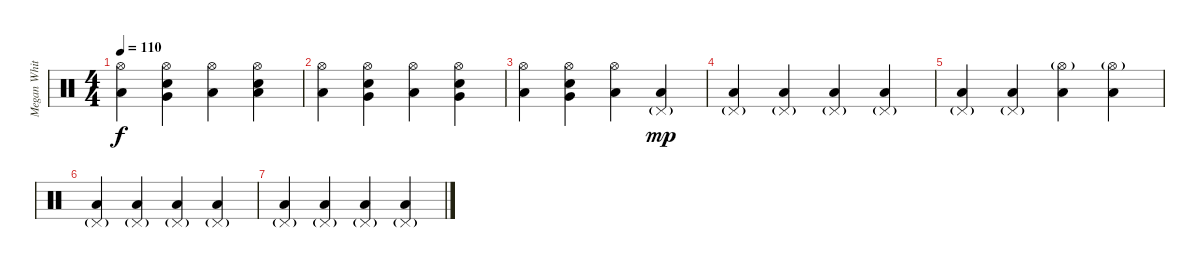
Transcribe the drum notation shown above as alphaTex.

\track ("Megan White (drums)" "Megan Whit") {instrument percussion}
\staff {score}
\articulation defaults
\ts (4 4)
\tempo 110
\clef neutral
\ks c
("Hi-Hat (open)" "Low Floor Tom (hit)").4{dy f} ("Hi-Hat (open)" "Electric Snare (hit)" "Very Low Tom (hit)").4 ("Hi-Hat (open)" "Low Floor Tom (hit)").4 ("Hi-Hat (open)" "Electric Snare (hit)" "Low Floor Tom (hit)").4 |
("Hi-Hat (open)" "Low Floor Tom (hit)").4 ("Hi-Hat (open)" "Electric Snare (hit)" "Very Low Tom (hit)").4 ("Hi-Hat (open)" "Low Floor Tom (hit)").4 ("Hi-Hat (open)" "Electric Snare (hit)" "Very Low Tom (hit)").4 |
("Hi-Hat (open)" "Low Floor Tom (hit)").4 ("Hi-Hat (open)" "Electric Snare (hit)" "Very Low Tom (hit)").4 ("Hi-Hat (open)" "Low Floor Tom (hit)").4 ("Pedal Hi-Hat (hit)"{g} "Low Floor Tom (hit)").4{dy mp} |
("Pedal Hi-Hat (hit)"{g} "Low Floor Tom (hit)").4 ("Pedal Hi-Hat (hit)"{g} "Low Floor Tom (hit)").4 ("Pedal Hi-Hat (hit)"{g} "Low Floor Tom (hit)").4 ("Pedal Hi-Hat (hit)"{g} "Low Floor Tom (hit)").4 |
("Pedal Hi-Hat (hit)"{g} "Low Floor Tom (hit)").4 ("Pedal Hi-Hat (hit)"{g} "Low Floor Tom (hit)").4 ("Hi-Hat (open)"{g} "Low Floor Tom (hit)").4 ("Hi-Hat (open)"{g} "Low Floor Tom (hit)").4 |
("Pedal Hi-Hat (hit)"{g} "Low Floor Tom (hit)").4 ("Pedal Hi-Hat (hit)"{g} "Low Floor Tom (hit)").4 ("Pedal Hi-Hat (hit)"{g} "Low Floor Tom (hit)").4 ("Pedal Hi-Hat (hit)"{g} "Low Floor Tom (hit)").4 |
("Pedal Hi-Hat (hit)"{g} "Low Floor Tom (hit)").4 ("Pedal Hi-Hat (hit)"{g} "Low Floor Tom (hit)").4 ("Pedal Hi-Hat (hit)"{g} "Low Floor Tom (hit)").4 ("Pedal Hi-Hat (hit)"{g} "Low Floor Tom (hit)").4
